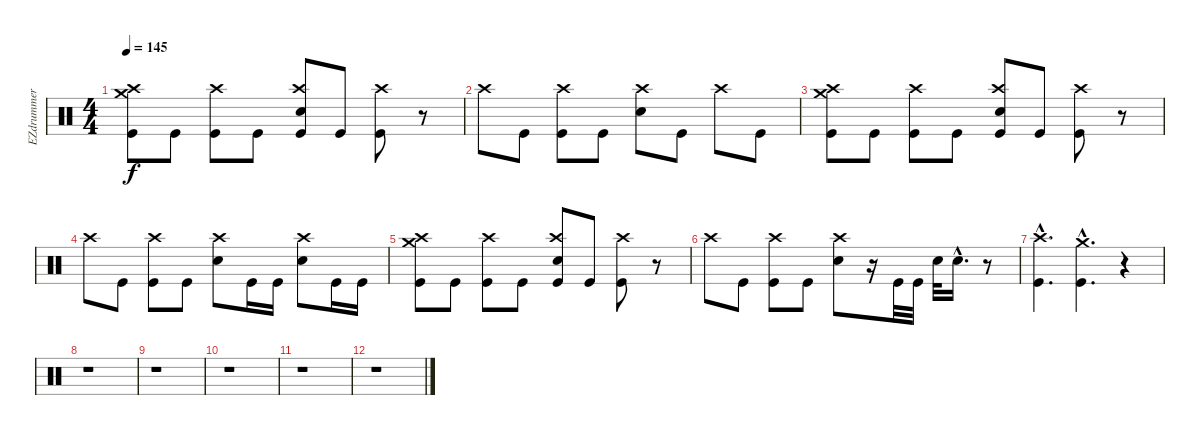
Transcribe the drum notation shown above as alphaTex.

\track ("EZdrummer 01" "EZdrummer ") {instrument percussion}
\staff {score}
\articulation defaults
\ts (4 4)
\tempo 145
\clef neutral
\ks c
("Kick (hit)" "Crash high (hit)" "Crash medium (hit)").8{dy f} "Kick (hit)".8 ("Kick (hit)" "Crash high (hit)").8 "Kick (hit)".8 ("Crash high (hit)" "Kick (hit)" "Snare (hit) 2").8 "Kick (hit)".8 ("Crash high (hit)" "Kick (hit)").8 r.8 |
"Crash high (hit)".8 "Kick (hit)".8 ("Kick (hit)" "Crash high (hit)").8 "Kick (hit)".8 ("Crash high (hit)" "Snare (hit) 2").8 "Kick (hit)".8 "Crash high (hit)".8 "Kick (hit)".8 |
("Kick (hit)" "Crash high (hit)" "Crash medium (hit)").8 "Kick (hit)".8 ("Kick (hit)" "Crash high (hit)").8 "Kick (hit)".8 ("Crash high (hit)" "Kick (hit)" "Snare (hit) 2").8 "Kick (hit)".8 ("Crash high (hit)" "Kick (hit)").8 r.8 |
"Crash high (hit)".8 "Kick (hit)".8 ("Kick (hit)" "Crash high (hit)").8 "Kick (hit)".8 ("Crash high (hit)" "Snare (hit) 2").8 "Kick (hit)".16 "Kick (hit)".16 ("Snare (hit) 2" "Crash high (hit)").8 "Kick (hit)".16 "Kick (hit)".16 |
("Kick (hit)" "Crash high (hit)" "Crash medium (hit)").8 "Kick (hit)".8 ("Kick (hit)" "Crash high (hit)").8 "Kick (hit)".8 ("Crash high (hit)" "Kick (hit)" "Snare (hit) 2").8 "Kick (hit)".8 ("Crash high (hit)" "Kick (hit)").8 r.8 |
"Crash high (hit)".8 "Kick (hit)".8 ("Kick (hit)" "Crash high (hit)").8 "Kick (hit)".8 ("Crash high (hit)" "Snare (hit) 2").8 r.16 "Kick (hit)".32 "Kick (hit)".32 "Snare (hit) 2".32 "Electric Snare (hit)"{hac}.16{d} r.8 |
("Kick (hit)"{hac} "Crash high (hit)"{hac}).4{d} ("Kick (hit)"{hac} "Crash medium (hit)"{hac}).4{d} r.4 |
r.1 |
r.1 |
r.1 |
r.1 |
r.1
